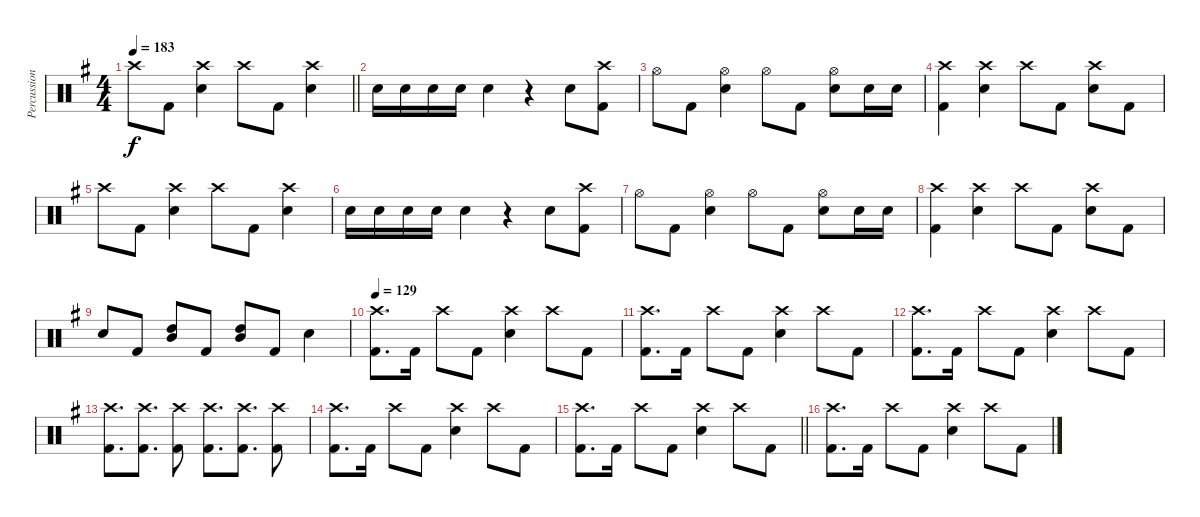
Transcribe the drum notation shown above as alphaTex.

\track ("Percussion" "Percussion") {instrument percussion}
\staff {score}
\articulation defaults
\ts (4 4)
\tempo 183
\clef neutral
\barLineRight lightlight
\ks g "Crash high (hit)".8{dy f} "Kick (hit) 2".8
("Crash high (hit)" "Electric Snare (hit)").4 "Crash high (hit)".8 "Kick (hit) 2".8 ("Electric Snare (hit)" "Crash high (hit)").4 |
"Electric Snare (hit)".16 "Electric Snare (hit)".16 "Electric Snare (hit)".16 "Electric Snare (hit)".16 "Electric Snare (hit)".4 r.4 "Electric Snare (hit)".8 ("Kick (hit) 2" "Crash high (hit)").8 |
"Hi-Hat (open)".8 "Kick (hit) 2".8 ("Hi-Hat (open)" "Electric Snare (hit)").4 "Hi-Hat (open)".8 "Kick (hit) 2".8 ("Electric Snare (hit)" "Hi-Hat (open)").8 "Electric Snare (hit)".16 "Electric Snare (hit)".16 |
("Kick (hit) 2" "Crash high (hit)").4 ("Electric Snare (hit)" "Crash high (hit)").4 "Crash high (hit)".8 "Kick (hit) 2".8 ("Electric Snare (hit)" "Crash high (hit)").8 "Kick (hit) 2".8 |
"Crash high (hit)".8 "Kick (hit) 2".8 ("Crash high (hit)" "Electric Snare (hit)").4 "Crash high (hit)".8 "Kick (hit) 2".8 ("Electric Snare (hit)" "Crash high (hit)").4 |
"Electric Snare (hit)".16 "Electric Snare (hit)".16 "Electric Snare (hit)".16 "Electric Snare (hit)".16 "Electric Snare (hit)".4 r.4 "Electric Snare (hit)".8 ("Kick (hit) 2" "Crash high (hit)").8 |
"Hi-Hat (open)".8 "Kick (hit) 2".8 ("Hi-Hat (open)" "Electric Snare (hit)").4 "Hi-Hat (open)".8 "Kick (hit) 2".8 ("Electric Snare (hit)" "Hi-Hat (open)").8 "Electric Snare (hit)".16 "Electric Snare (hit)".16 |
("Kick (hit) 2" "Crash high (hit)").4 ("Electric Snare (hit)" "Crash high (hit)").4 "Crash high (hit)".8 "Kick (hit) 2".8 ("Electric Snare (hit)" "Crash high (hit)").8 "Kick (hit) 2".8 |
"Electric Snare (hit)".8 "Kick (hit) 2".8 ("Mid Tom (hit)" "High Tom (hit)").8 "Kick (hit) 2".8 ("Mid Tom (hit)" "High Tom (hit)").8 "Kick (hit) 2".8 "Electric Snare (hit)".4 |
\tempo 129
("Kick (hit) 2" "Crash high (hit)").8{d} "Kick (hit) 2".16 "Crash high (hit)".8 "Kick (hit) 2".8 ("Electric Snare (hit)" "Crash high (hit)").4 "Crash high (hit)".8 "Kick (hit) 2".8 |
("Kick (hit) 2" "Crash high (hit)").8{d} "Kick (hit) 2".16 "Crash high (hit)".8 "Kick (hit) 2".8 ("Electric Snare (hit)" "Crash high (hit)").4 "Crash high (hit)".8 "Kick (hit) 2".8 |
("Kick (hit) 2" "Crash high (hit)").8{d} "Kick (hit) 2".16 "Crash high (hit)".8 "Kick (hit) 2".8 ("Electric Snare (hit)" "Crash high (hit)").4 "Crash high (hit)".8 "Kick (hit) 2".8 |
("Crash high (hit)" "Kick (hit) 2").8{d} ("Crash high (hit)" "Kick (hit) 2").8{d} ("Crash high (hit)" "Kick (hit) 2").8 ("Kick (hit) 2" "Crash high (hit)").8{d} ("Kick (hit) 2" "Crash high (hit)").8{d} ("Crash high (hit)" "Kick (hit) 2").8 |
("Kick (hit) 2" "Crash high (hit)").8{d} "Kick (hit) 2".16 "Crash high (hit)".8 "Kick (hit) 2".8 ("Electric Snare (hit)" "Crash high (hit)").4 "Crash high (hit)".8 "Kick (hit) 2".8 |
\barLineRight lightlight
("Kick (hit) 2" "Crash high (hit)").8{d} "Kick (hit) 2".16 "Crash high (hit)".8 "Kick (hit) 2".8 ("Electric Snare (hit)" "Crash high (hit)").4 "Crash high (hit)".8 "Kick (hit) 2".8 |
("Kick (hit) 2" "Crash high (hit)").8{d} "Kick (hit) 2".16 "Crash high (hit)".8 "Kick (hit) 2".8 ("Electric Snare (hit)" "Crash high (hit)").4 "Crash high (hit)".8 "Kick (hit) 2".8
